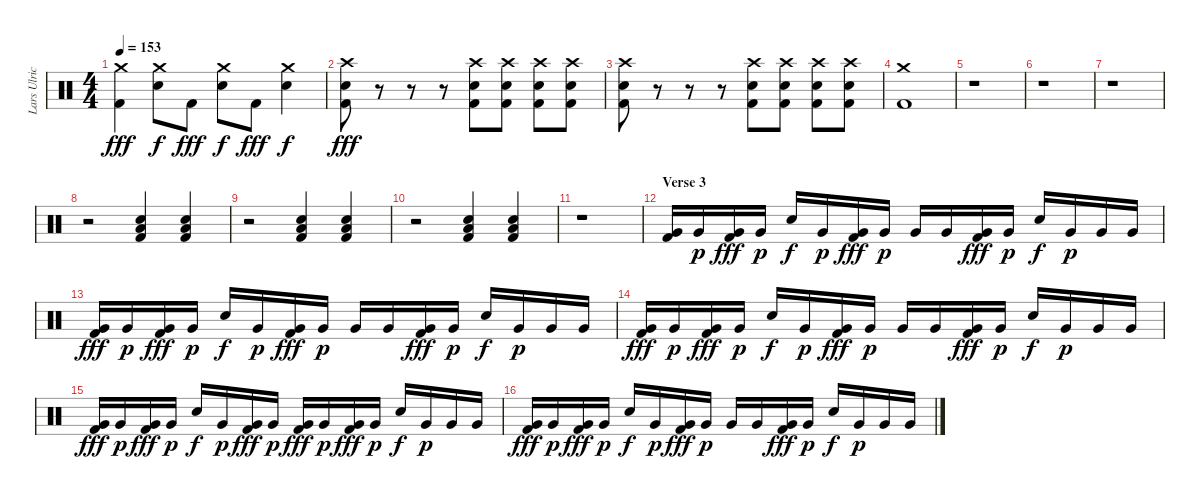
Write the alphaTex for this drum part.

\track ("Lars Ulrich (Drums)" "Lars Ulric") {instrument percussion}
\staff {score}
\articulation defaults
\ts (4 4)
\tempo 153
\clef neutral
\ks c
("Crash medium (hit)" "Kick (hit) 2").4{dy fff} ("Crash medium (hit)" "Electric Snare (hit)").8{dy f} "Kick (hit) 2".8{dy fff} ("Crash medium (hit)" "Electric Snare (hit)").8{dy f} "Kick (hit) 2".8{dy fff} ("Crash medium (hit)" "Electric Snare (hit)").4{dy f} |
("Crash high (hit)" "Electric Snare (hit)" "Kick (hit) 2").8{dy fff} r.8 r.8 r.8 ("Crash high (hit)" "Electric Snare (hit)" "Kick (hit) 2").8 ("Crash high (hit)" "Electric Snare (hit)" "Kick (hit) 2").8 ("Crash high (hit)" "Electric Snare (hit)" "Kick (hit) 2").8 ("Crash high (hit)" "Electric Snare (hit)" "Kick (hit) 2").8 |
("Crash high (hit)" "Electric Snare (hit)" "Kick (hit) 2").8 r.8 r.8 r.8 ("Crash high (hit)" "Electric Snare (hit)" "Kick (hit) 2").8 ("Crash high (hit)" "Electric Snare (hit)" "Kick (hit) 2").8 ("Crash high (hit)" "Electric Snare (hit)" "Kick (hit) 2").8 ("Crash high (hit)" "Electric Snare (hit)" "Kick (hit) 2").8 |
("Crash medium (hit)" "Kick (hit) 2").1 |
r.1 |
r.1 |
r.1 |
r.2 ("Low Floor Tom (hit)" "Electric Snare (hit)" "Kick (hit) 2").4 ("Low Floor Tom (hit)" "Electric Snare (hit)" "Kick (hit) 2").4 |
r.2 ("Low Floor Tom (hit)" "Electric Snare (hit)" "Kick (hit) 2").4 ("Low Floor Tom (hit)" "Electric Snare (hit)" "Kick (hit) 2").4 |
r.2 ("Low Floor Tom (hit)" "Electric Snare (hit)" "Kick (hit) 2").4 ("Low Floor Tom (hit)" "Electric Snare (hit)" "Kick (hit) 2").4 |
r.1 |
\section ("" "Verse 3")
("Very Low Tom (hit)" "Kick (hit) 2").16 "Very Low Tom (hit)".16{dy p} ("Very Low Tom (hit)" "Kick (hit) 2").16{dy fff} "Very Low Tom (hit)".16{dy p} "Electric Snare (hit)".16{dy f} "Very Low Tom (hit)".16{dy p} ("Very Low Tom (hit)" "Kick (hit) 2").16{dy fff} "Very Low Tom (hit)".16{dy p} "Very Low Tom (hit)".16 "Very Low Tom (hit)".16 ("Very Low Tom (hit)" "Kick (hit) 2").16{dy fff} "Very Low Tom (hit)".16{dy p} "Electric Snare (hit)".16{dy f} "Very Low Tom (hit)".16{dy p} "Very Low Tom (hit)".16 "Very Low Tom (hit)".16 |
("Very Low Tom (hit)" "Kick (hit) 2").16{dy fff} "Very Low Tom (hit)".16{dy p} ("Very Low Tom (hit)" "Kick (hit) 2").16{dy fff} "Very Low Tom (hit)".16{dy p} "Electric Snare (hit)".16{dy f} "Very Low Tom (hit)".16{dy p} ("Very Low Tom (hit)" "Kick (hit) 2").16{dy fff} "Very Low Tom (hit)".16{dy p} "Very Low Tom (hit)".16 "Very Low Tom (hit)".16 ("Very Low Tom (hit)" "Kick (hit) 2").16{dy fff} "Very Low Tom (hit)".16{dy p} "Electric Snare (hit)".16{dy f} "Very Low Tom (hit)".16{dy p} "Very Low Tom (hit)".16 "Very Low Tom (hit)".16 |
("Very Low Tom (hit)" "Kick (hit) 2").16{dy fff} "Very Low Tom (hit)".16{dy p} ("Very Low Tom (hit)" "Kick (hit) 2").16{dy fff} "Very Low Tom (hit)".16{dy p} "Electric Snare (hit)".16{dy f} "Very Low Tom (hit)".16{dy p} ("Very Low Tom (hit)" "Kick (hit) 2").16{dy fff} "Very Low Tom (hit)".16{dy p} "Very Low Tom (hit)".16 "Very Low Tom (hit)".16 ("Very Low Tom (hit)" "Kick (hit) 2").16{dy fff} "Very Low Tom (hit)".16{dy p} "Electric Snare (hit)".16{dy f} "Very Low Tom (hit)".16{dy p} "Very Low Tom (hit)".16 "Very Low Tom (hit)".16 |
("Very Low Tom (hit)" "Kick (hit) 2").16{dy fff} "Very Low Tom (hit)".16{dy p} ("Very Low Tom (hit)" "Kick (hit) 2").16{dy fff} "Very Low Tom (hit)".16{dy p} "Electric Snare (hit)".16{dy f} "Very Low Tom (hit)".16{dy p} ("Very Low Tom (hit)" "Kick (hit) 2").16{dy fff} "Very Low Tom (hit)".16{dy p} ("Very Low Tom (hit)" "Kick (hit) 2").16{dy fff} "Very Low Tom (hit)".16{dy p} ("Very Low Tom (hit)" "Kick (hit) 2").16{dy fff} "Very Low Tom (hit)".16{dy p} "Electric Snare (hit)".16{dy f} "Very Low Tom (hit)".16{dy p} "Very Low Tom (hit)".16 "Very Low Tom (hit)".16 |
("Very Low Tom (hit)" "Kick (hit) 2").16{dy fff} "Very Low Tom (hit)".16{dy p} ("Very Low Tom (hit)" "Kick (hit) 2").16{dy fff} "Very Low Tom (hit)".16{dy p} "Electric Snare (hit)".16{dy f} "Very Low Tom (hit)".16{dy p} ("Very Low Tom (hit)" "Kick (hit) 2").16{dy fff} "Very Low Tom (hit)".16{dy p} "Very Low Tom (hit)".16 "Very Low Tom (hit)".16 ("Very Low Tom (hit)" "Kick (hit) 2").16{dy fff} "Very Low Tom (hit)".16{dy p} "Electric Snare (hit)".16{dy f} "Very Low Tom (hit)".16{dy p} "Very Low Tom (hit)".16 "Very Low Tom (hit)".16
